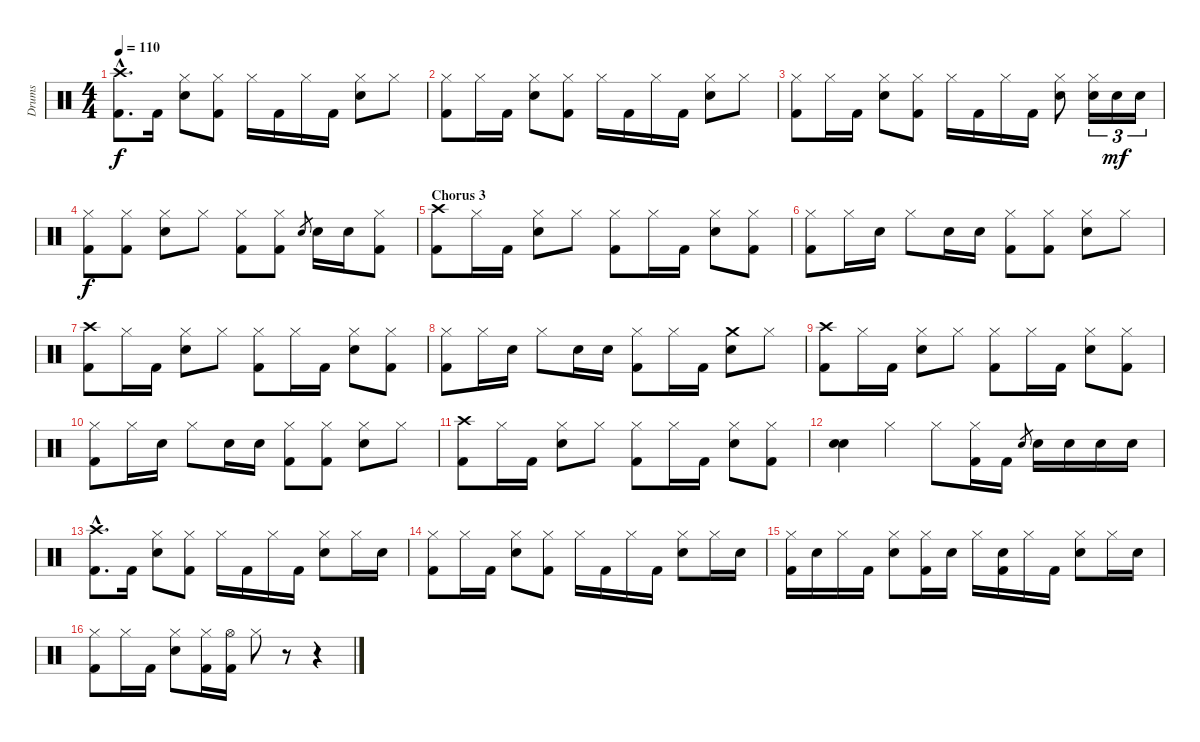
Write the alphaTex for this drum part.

\track ("Drums" "Drums") {instrument percussion}
\staff {score}
\articulation defaults
\ts (4 4)
\tempo 110
\clef neutral
\ks c
("Crash high (hit)"{hac} "Kick (hit) 2"{hac}).8{d dy f} "Kick (hit) 2".16 ("Hi-Hat (closed)" "Electric Snare (hit)").8 ("Hi-Hat (closed)" "Kick (hit) 2").8 "Hi-Hat (closed)".16 "Kick (hit) 2".16 "Hi-Hat (closed)".16 "Kick (hit) 2".16 ("Hi-Hat (closed)" "Electric Snare (hit)").8 "Hi-Hat (closed)".8 |
("Hi-Hat (closed)" "Kick (hit) 2").8 "Hi-Hat (closed)".16 "Kick (hit) 2".16 ("Hi-Hat (closed)" "Electric Snare (hit)").8 ("Hi-Hat (closed)" "Kick (hit) 2").8 "Hi-Hat (closed)".16 "Kick (hit) 2".16 "Hi-Hat (closed)".16 "Kick (hit) 2".16 ("Hi-Hat (closed)" "Electric Snare (hit)").8 "Hi-Hat (closed)".8 |
("Hi-Hat (closed)" "Kick (hit) 2").8 "Hi-Hat (closed)".16 "Kick (hit) 2".16 ("Hi-Hat (closed)" "Electric Snare (hit)").8 ("Hi-Hat (closed)" "Kick (hit) 2").8 "Hi-Hat (closed)".16 "Kick (hit) 2".16 "Hi-Hat (closed)".16 "Kick (hit) 2".16 ("Hi-Hat (closed)" "Electric Snare (hit)").8 ("Hi-Hat (closed)" "Electric Snare (hit)").16{tu (3 2)} "Electric Snare (hit)".16{tu (3 2) dy mf} "Electric Snare (hit)".16{tu (3 2)} |
("Hi-Hat (closed)" "Kick (hit) 2").8{dy f} ("Hi-Hat (closed)" "Kick (hit) 2").8 ("Hi-Hat (closed)" "Electric Snare (hit)").8 "Hi-Hat (closed)".8 ("Hi-Hat (closed)" "Kick (hit) 2").8 ("Hi-Hat (closed)" "Kick (hit) 2").8 "Electric Snare (hit)".8{gr} "Electric Snare (hit)".16 "Electric Snare (hit)".16 ("Hi-Hat (closed)" "Kick (hit) 2").8 |
\section ("" "Chorus 3")
("Crash high (hit)" "Kick (hit) 2").8 "Hi-Hat (closed)".16 "Kick (hit) 2".16 ("Hi-Hat (closed)" "Electric Snare (hit)").8 "Hi-Hat (closed)".8 ("Hi-Hat (closed)" "Kick (hit) 2").8 "Hi-Hat (closed)".16 "Kick (hit) 2".16 ("Hi-Hat (closed)" "Electric Snare (hit)").8 ("Hi-Hat (closed)" "Kick (hit) 2").8 |
("Hi-Hat (closed)" "Kick (hit) 2").8 "Hi-Hat (closed)".16 "Electric Snare (hit)".16 "Hi-Hat (closed)".8 "Electric Snare (hit)".16 "Electric Snare (hit)".16 ("Hi-Hat (closed)" "Kick (hit) 2").8 ("Hi-Hat (closed)" "Kick (hit) 2").8 ("Hi-Hat (closed)" "Electric Snare (hit)").8 "Hi-Hat (closed)".8 |
("Crash high (hit)" "Kick (hit) 2").8 "Hi-Hat (closed)".16 "Kick (hit) 2".16 ("Hi-Hat (closed)" "Electric Snare (hit)").8 "Hi-Hat (closed)".8 ("Hi-Hat (closed)" "Kick (hit) 2").8 "Hi-Hat (closed)".16 "Kick (hit) 2".16 ("Hi-Hat (closed)" "Electric Snare (hit)").8 ("Hi-Hat (closed)" "Kick (hit) 2").8 |
("Hi-Hat (closed)" "Kick (hit) 2").8 "Hi-Hat (closed)".16 "Electric Snare (hit)".16 "Hi-Hat (closed)".8 "Electric Snare (hit)".16 "Electric Snare (hit)".16 ("Hi-Hat (closed)" "Kick (hit) 2").8 "Hi-Hat (closed)".16 "Kick (hit) 2".16 ("Crash medium (hit)" "Electric Snare (hit)").8 "Hi-Hat (closed)".8 |
("Crash high (hit)" "Kick (hit) 2").8 "Hi-Hat (closed)".16 "Kick (hit) 2".16 ("Hi-Hat (closed)" "Electric Snare (hit)").8 "Hi-Hat (closed)".8 ("Hi-Hat (closed)" "Kick (hit) 2").8 "Hi-Hat (closed)".16 "Kick (hit) 2".16 ("Hi-Hat (closed)" "Electric Snare (hit)").8 ("Hi-Hat (closed)" "Kick (hit) 2").8 |
("Hi-Hat (closed)" "Kick (hit) 2").8 "Hi-Hat (closed)".16 "Electric Snare (hit)".16 "Hi-Hat (closed)".8 "Electric Snare (hit)".16 "Electric Snare (hit)".16 ("Hi-Hat (closed)" "Kick (hit) 2").8 ("Hi-Hat (closed)" "Kick (hit) 2").8 ("Hi-Hat (closed)" "Electric Snare (hit)").8 "Hi-Hat (closed)".8 |
("Crash high (hit)" "Kick (hit) 2").8 "Hi-Hat (closed)".16 "Kick (hit) 2".16 ("Hi-Hat (closed)" "Electric Snare (hit)").8 "Hi-Hat (closed)".8 ("Hi-Hat (closed)" "Kick (hit) 2").8 "Hi-Hat (closed)".16 "Kick (hit) 2".16 ("Hi-Hat (closed)" "Electric Snare (hit)").8 ("Hi-Hat (closed)" "Kick (hit) 2").8 |
("Electric Snare (hit)" "Electric Snare (hit)").4 "Hi-Hat (closed)".4 "Hi-Hat (closed)".8 ("Hi-Hat (closed)" "Kick (hit) 2").16 "Kick (hit) 2".16 "Electric Snare (hit)".8{gr} "Electric Snare (hit)".16 "Electric Snare (hit)".16 "Electric Snare (hit)".16 "Electric Snare (hit)".16 |
("Crash high (hit)"{hac} "Kick (hit) 2"{hac}).8{d} "Kick (hit) 2".16 ("Hi-Hat (closed)" "Electric Snare (hit)").8 ("Hi-Hat (closed)" "Kick (hit) 2").8 "Hi-Hat (closed)".16 "Kick (hit) 2".16 "Hi-Hat (closed)".16 "Kick (hit) 2".16 ("Hi-Hat (closed)" "Electric Snare (hit)").8 "Hi-Hat (closed)".16 "Electric Snare (hit)".16 |
("Hi-Hat (closed)" "Kick (hit) 2").8 "Hi-Hat (closed)".16 "Kick (hit) 2".16 ("Hi-Hat (closed)" "Electric Snare (hit)").8 ("Hi-Hat (closed)" "Kick (hit) 2").8 "Hi-Hat (closed)".16 "Kick (hit) 2".16 "Hi-Hat (closed)".16 "Kick (hit) 2".16 ("Hi-Hat (closed)" "Electric Snare (hit)").8 "Hi-Hat (closed)".16 "Electric Snare (hit)".16 |
("Hi-Hat (closed)" "Kick (hit) 2").16 "Electric Snare (hit)".16 "Hi-Hat (closed)".16 "Kick (hit) 2".16 ("Hi-Hat (closed)" "Electric Snare (hit)").8 ("Hi-Hat (closed)" "Kick (hit) 2").16 "Electric Snare (hit)".16 "Hi-Hat (closed)".16 ("Electric Snare (hit)" "Kick (hit) 2").16 "Hi-Hat (closed)".16 "Kick (hit) 2".16 ("Hi-Hat (closed)" "Electric Snare (hit)").8 "Hi-Hat (closed)".16 "Electric Snare (hit)".16 |
("Hi-Hat (closed)" "Kick (hit) 2").8 "Hi-Hat (closed)".16 "Kick (hit) 2".16 ("Hi-Hat (closed)" "Electric Snare (hit)").8 ("Hi-Hat (closed)" "Kick (hit) 2").16 ("Hi-Hat (open)" "Kick (hit) 2").16 "Hi-Hat (closed)".8 r.8 r.4
